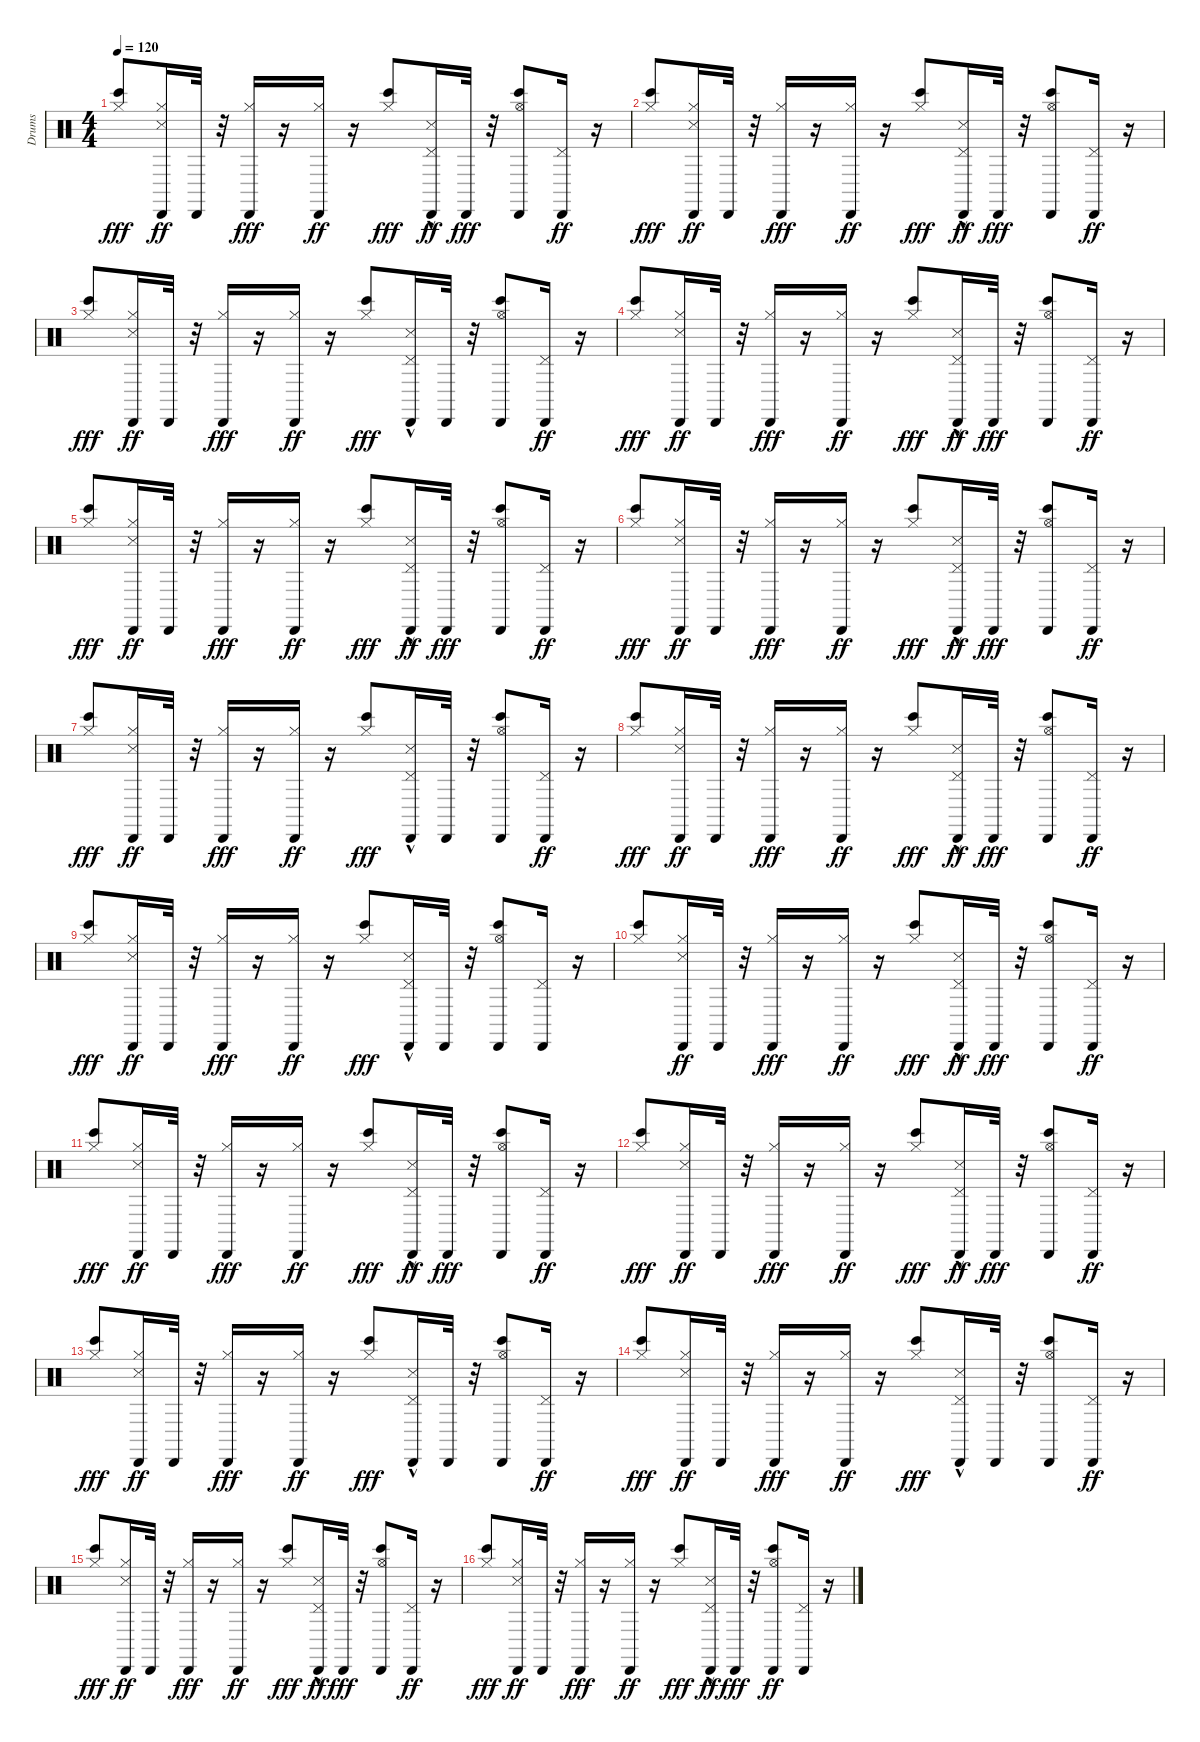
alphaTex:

\track ("Drums" "Drums") {instrument percussion}
\staff {score}
\articulation defaults
\ts (4 4)
\tempo 120
\clef neutral
\ks c
("Hi-Hat (closed)" "Bongo High (hit)").8{dy fff} ("Snare (side stick) 3" "Cabasa (hit)" "Hi-Hat (closed)").16{dy ff} "Cabasa (hit)".32 r.32 ("Cabasa (hit)" "Hi-Hat (closed)").16{dy fff} r.16 ("Cabasa (hit)" "Hi-Hat (closed)").16{dy ff} r.16 ("Hi-Hat (closed)" "Bongo High (hit)").8{dy fff} ("Snare (side stick) 3"{hac} "Cabasa (hit)" "Pedal Hi-Hat (hit)").16{dy ff} "Cabasa (hit)".32{dy fff} r.32 ("Cabasa (hit)" "Hi-Hat (open)" "Bongo High (hit)").8 ("Cabasa (hit)" "Pedal Hi-Hat (hit)").16{dy ff} r.16 |
("Hi-Hat (closed)" "Bongo High (hit)").8{dy fff} ("Snare (side stick) 3" "Cabasa (hit)" "Hi-Hat (closed)").16{dy ff} "Cabasa (hit)".32 r.32 ("Cabasa (hit)" "Hi-Hat (closed)").16{dy fff} r.16 ("Cabasa (hit)" "Hi-Hat (closed)").16{dy ff} r.16 ("Hi-Hat (closed)" "Bongo High (hit)").8{dy fff} ("Snare (side stick) 3"{hac} "Cabasa (hit)" "Pedal Hi-Hat (hit)").16{dy ff} "Cabasa (hit)".32{dy fff} r.32 ("Cabasa (hit)" "Hi-Hat (open)" "Bongo High (hit)").8 ("Cabasa (hit)" "Pedal Hi-Hat (hit)").16{dy ff} r.16 |
("Hi-Hat (closed)" "Bongo High (hit)").8{dy fff} ("Snare (side stick) 3" "Cabasa (hit)" "Hi-Hat (closed)").16{dy ff} "Cabasa (hit)".32 r.32 ("Cabasa (hit)" "Hi-Hat (closed)").16{dy fff} r.16 ("Cabasa (hit)" "Hi-Hat (closed)").16{dy ff} r.16 ("Hi-Hat (closed)" "Bongo High (hit)").8{dy fff} ("Pedal Hi-Hat (hit)" "Snare (side stick) 3"{hac} "Cabasa (hit)").16 "Cabasa (hit)".32 r.32 ("Cabasa (hit)" "Hi-Hat (open)" "Bongo High (hit)").8 ("Cabasa (hit)" "Pedal Hi-Hat (hit)").16{dy ff} r.16 |
("Hi-Hat (closed)" "Bongo High (hit)").8{dy fff} ("Snare (side stick) 3" "Cabasa (hit)" "Hi-Hat (closed)").16{dy ff} "Cabasa (hit)".32 r.32 ("Cabasa (hit)" "Hi-Hat (closed)").16{dy fff} r.16 ("Cabasa (hit)" "Hi-Hat (closed)").16{dy ff} r.16 ("Hi-Hat (closed)" "Bongo High (hit)").8{dy fff} ("Snare (side stick) 3"{hac} "Cabasa (hit)" "Pedal Hi-Hat (hit)").16{dy ff} "Cabasa (hit)".32{dy fff} r.32 ("Cabasa (hit)" "Hi-Hat (open)" "Bongo High (hit)").8 ("Cabasa (hit)" "Pedal Hi-Hat (hit)").16{dy ff} r.16 |
("Hi-Hat (closed)" "Bongo High (hit)").8{dy fff} ("Snare (side stick) 3" "Cabasa (hit)" "Hi-Hat (closed)").16{dy ff} "Cabasa (hit)".32 r.32 ("Cabasa (hit)" "Hi-Hat (closed)").16{dy fff} r.16 ("Cabasa (hit)" "Hi-Hat (closed)").16{dy ff} r.16 ("Hi-Hat (closed)" "Bongo High (hit)").8{dy fff} ("Snare (side stick) 3"{hac} "Cabasa (hit)" "Pedal Hi-Hat (hit)").16{dy ff} "Cabasa (hit)".32{dy fff} r.32 ("Cabasa (hit)" "Hi-Hat (open)" "Bongo High (hit)").8 ("Cabasa (hit)" "Pedal Hi-Hat (hit)").16{dy ff} r.16 |
("Hi-Hat (closed)" "Bongo High (hit)").8{dy fff} ("Snare (side stick) 3" "Cabasa (hit)" "Hi-Hat (closed)").16{dy ff} "Cabasa (hit)".32 r.32 ("Hi-Hat (closed)" "Cabasa (hit)").16{dy fff} r.16 ("Cabasa (hit)" "Hi-Hat (closed)").16{dy ff} r.16 ("Hi-Hat (closed)" "Bongo High (hit)").8{dy fff} ("Snare (side stick) 3"{hac} "Cabasa (hit)" "Pedal Hi-Hat (hit)").16{dy ff} "Cabasa (hit)".32{dy fff} r.32 ("Cabasa (hit)" "Hi-Hat (open)" "Bongo High (hit)").8 ("Cabasa (hit)" "Pedal Hi-Hat (hit)").16{dy ff} r.16 |
("Hi-Hat (closed)" "Bongo High (hit)").8{dy fff} ("Snare (side stick) 3" "Cabasa (hit)" "Hi-Hat (closed)").16{dy ff} "Cabasa (hit)".32 r.32 ("Cabasa (hit)" "Hi-Hat (closed)").16{dy fff} r.16 ("Cabasa (hit)" "Hi-Hat (closed)").16{dy ff} r.16 ("Hi-Hat (closed)" "Bongo High (hit)").8{dy fff} ("Pedal Hi-Hat (hit)" "Snare (side stick) 3"{hac} "Cabasa (hit)").16 "Cabasa (hit)".32 r.32 ("Cabasa (hit)" "Hi-Hat (open)" "Bongo High (hit)").8 ("Cabasa (hit)" "Pedal Hi-Hat (hit)").16{dy ff} r.16 |
("Hi-Hat (closed)" "Bongo High (hit)").8{dy fff} ("Snare (side stick) 3" "Cabasa (hit)" "Hi-Hat (closed)").16{dy ff} "Cabasa (hit)".32 r.32 ("Cabasa (hit)" "Hi-Hat (closed)").16{dy fff} r.16 ("Cabasa (hit)" "Hi-Hat (closed)").16{dy ff} r.16 ("Hi-Hat (closed)" "Bongo High (hit)").8{dy fff} ("Snare (side stick) 3"{hac} "Cabasa (hit)" "Pedal Hi-Hat (hit)").16{dy ff} "Cabasa (hit)".32{dy fff} r.32 ("Cabasa (hit)" "Hi-Hat (open)" "Bongo High (hit)").8 ("Cabasa (hit)" "Pedal Hi-Hat (hit)").16{dy ff} r.16 |
("Hi-Hat (closed)" "Bongo High (hit)").8{dy fff} ("Snare (side stick) 3" "Cabasa (hit)" "Hi-Hat (closed)").16{dy ff} "Cabasa (hit)".32 r.32 ("Cabasa (hit)" "Hi-Hat (closed)").16{dy fff} r.16 ("Cabasa (hit)" "Hi-Hat (closed)").16{dy ff} r.16 ("Hi-Hat (closed)" "Bongo High (hit)").8{dy fff} ("Cabasa (hit)" "Pedal Hi-Hat (hit)" "Snare (side stick) 3"{hac}).16 "Cabasa (hit)".32 r.32 ("Cabasa (hit)" "Hi-Hat (open)" "Bongo High (hit)").8 ("Pedal Hi-Hat (hit)" "Cabasa (hit)").16 r.16 |
("Hi-Hat (closed)" "Bongo High (hit)").8 ("Snare (side stick) 3" "Cabasa (hit)" "Hi-Hat (closed)").16{dy ff} "Cabasa (hit)".32 r.32 ("Cabasa (hit)" "Hi-Hat (closed)").16{dy fff} r.16 ("Cabasa (hit)" "Hi-Hat (closed)").16{dy ff} r.16 ("Hi-Hat (closed)" "Bongo High (hit)").8{dy fff} ("Snare (side stick) 3"{hac} "Cabasa (hit)" "Pedal Hi-Hat (hit)").16{dy ff} "Cabasa (hit)".32{dy fff} r.32 ("Cabasa (hit)" "Hi-Hat (open)" "Bongo High (hit)").8 ("Cabasa (hit)" "Pedal Hi-Hat (hit)").16{dy ff} r.16 |
("Hi-Hat (closed)" "Bongo High (hit)").8{dy fff} ("Snare (side stick) 3" "Cabasa (hit)" "Hi-Hat (closed)").16{dy ff} "Cabasa (hit)".32 r.32 ("Hi-Hat (closed)" "Cabasa (hit)").16{dy fff} r.16 ("Cabasa (hit)" "Hi-Hat (closed)").16{dy ff} r.16 ("Hi-Hat (closed)" "Bongo High (hit)").8{dy fff} ("Snare (side stick) 3"{hac} "Cabasa (hit)" "Pedal Hi-Hat (hit)").16{dy ff} "Cabasa (hit)".32{dy fff} r.32 ("Cabasa (hit)" "Hi-Hat (open)" "Bongo High (hit)").8 ("Cabasa (hit)" "Pedal Hi-Hat (hit)").16{dy ff} r.16 |
("Hi-Hat (closed)" "Bongo High (hit)").8{dy fff} ("Snare (side stick) 3" "Cabasa (hit)" "Hi-Hat (closed)").16{dy ff} "Cabasa (hit)".32 r.32 ("Cabasa (hit)" "Hi-Hat (closed)").16{dy fff} r.16 ("Cabasa (hit)" "Hi-Hat (closed)").16{dy ff} r.16 ("Hi-Hat (closed)" "Bongo High (hit)").8{dy fff} ("Snare (side stick) 3"{hac} "Cabasa (hit)" "Pedal Hi-Hat (hit)").16{dy ff} "Cabasa (hit)".32{dy fff} r.32 ("Cabasa (hit)" "Hi-Hat (open)" "Bongo High (hit)").8 ("Cabasa (hit)" "Pedal Hi-Hat (hit)").16{dy ff} r.16 |
("Hi-Hat (closed)" "Bongo High (hit)").8{dy fff} ("Snare (side stick) 3" "Cabasa (hit)" "Hi-Hat (closed)").16{dy ff} "Cabasa (hit)".32 r.32 ("Cabasa (hit)" "Hi-Hat (closed)").16{dy fff} r.16 ("Cabasa (hit)" "Hi-Hat (closed)").16{dy ff} r.16 ("Hi-Hat (closed)" "Bongo High (hit)").8{dy fff} ("Pedal Hi-Hat (hit)" "Snare (side stick) 3"{hac} "Cabasa (hit)").16 "Cabasa (hit)".32 r.32 ("Cabasa (hit)" "Hi-Hat (open)" "Bongo High (hit)").8 ("Cabasa (hit)" "Pedal Hi-Hat (hit)").16{dy ff} r.16 |
("Hi-Hat (closed)" "Bongo High (hit)").8{dy fff} ("Snare (side stick) 3" "Cabasa (hit)" "Hi-Hat (closed)").16{dy ff} "Cabasa (hit)".32 r.32 ("Cabasa (hit)" "Hi-Hat (closed)").16{dy fff} r.16 ("Cabasa (hit)" "Hi-Hat (closed)").16{dy ff} r.16 ("Hi-Hat (closed)" "Bongo High (hit)").8{dy fff} ("Cabasa (hit)" "Pedal Hi-Hat (hit)" "Snare (side stick) 3"{hac}).16 "Cabasa (hit)".32 r.32 ("Cabasa (hit)" "Hi-Hat (open)" "Bongo High (hit)").8 ("Cabasa (hit)" "Pedal Hi-Hat (hit)").16{dy ff} r.16 |
("Hi-Hat (closed)" "Bongo High (hit)").8{dy fff} ("Snare (side stick) 3" "Cabasa (hit)" "Hi-Hat (closed)").16{dy ff} "Cabasa (hit)".32 r.32 ("Cabasa (hit)" "Hi-Hat (closed)").16{dy fff} r.16 ("Cabasa (hit)" "Hi-Hat (closed)").16{dy ff} r.16 ("Hi-Hat (closed)" "Bongo High (hit)").8{dy fff} ("Snare (side stick) 3"{hac} "Cabasa (hit)" "Pedal Hi-Hat (hit)").16{dy ff} "Cabasa (hit)".32{dy fff} r.32 ("Cabasa (hit)" "Hi-Hat (open)" "Bongo High (hit)").8 ("Cabasa (hit)" "Pedal Hi-Hat (hit)").16{dy ff} r.16 |
("Hi-Hat (closed)" "Bongo High (hit)").8{dy fff} ("Snare (side stick) 3" "Cabasa (hit)" "Hi-Hat (closed)").16{dy ff} "Cabasa (hit)".32 r.32 ("Cabasa (hit)" "Hi-Hat (closed)").16{dy fff} r.16 ("Cabasa (hit)" "Hi-Hat (closed)").16{dy ff} r.16 ("Hi-Hat (closed)" "Bongo High (hit)").8{dy fff} ("Snare (side stick) 3"{hac} "Cabasa (hit)" "Pedal Hi-Hat (hit)").16{dy ff} "Cabasa (hit)".32{dy fff} r.32 ("Bongo High (hit)" "Cabasa (hit)" "Hi-Hat (open)").8{dy ff} ("Cabasa (hit)" "Pedal Hi-Hat (hit)").16 r.16
